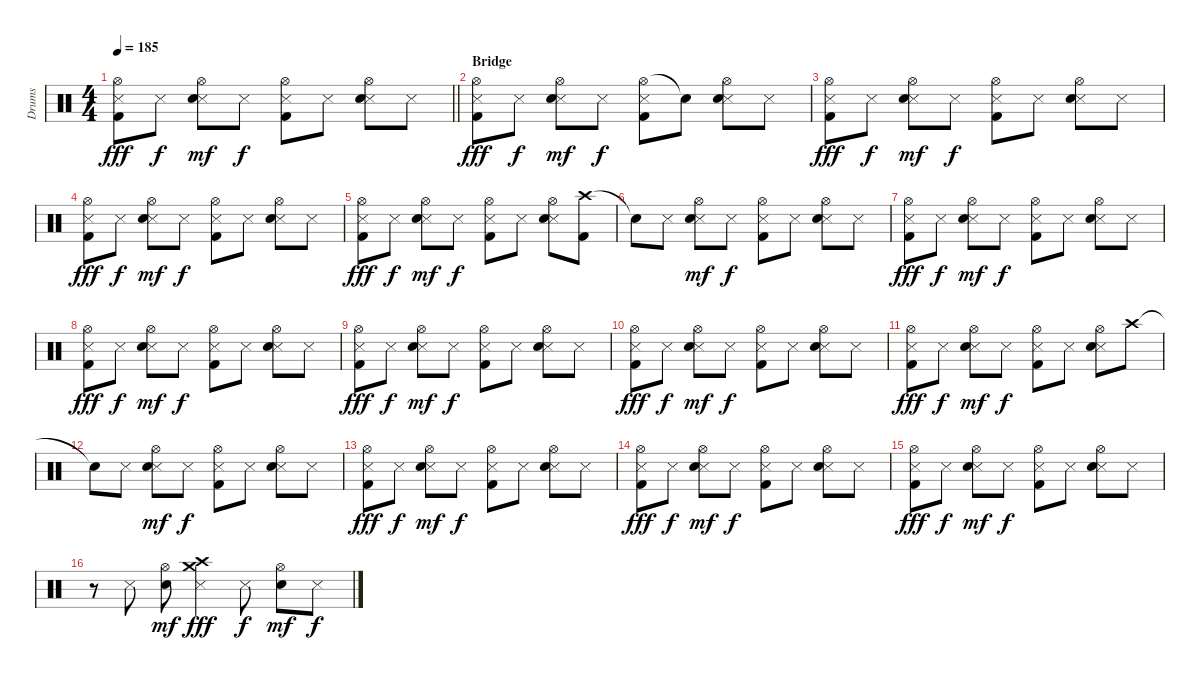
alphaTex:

\track ("Drums" "Drums") {instrument percussion}
\staff {score}
\articulation defaults
\ts (4 4)
\tempo 185
\clef neutral
\barLineRight lightlight
\ks c
("Hi-Hat (open)" "Metronome (hit)" "Kick (hit) 2").8{dy fff} "Metronome (hit)".8{dy f} ("Hi-Hat (open)" "Metronome (hit)" "Snare (hit) 2").8{dy mf} "Metronome (hit)".8{dy f} ("Hi-Hat (open)" "Metronome (hit)" "Kick (hit) 2").8 "Metronome (hit)".8 ("Hi-Hat (open)" "Metronome (hit)" "Snare (hit) 2").8 "Metronome (hit)".8 |
\section ("" "Bridge")
("Hi-Hat (open)" "Metronome (hit)" "Kick (hit) 2").8{dy fff} "Metronome (hit)".8{dy f} ("Hi-Hat (open)" "Metronome (hit)" "Snare (hit) 2").8{dy mf} "Metronome (hit)".8{dy f} ("Hi-Hat (open)" "Metronome (hit)" "Kick (hit) 2").8 "Snare (hit)"{t}.8 ("Hi-Hat (open)" "Metronome (hit)" "Snare (hit) 2").8 "Metronome (hit)".8 |
("Hi-Hat (open)" "Metronome (hit)" "Kick (hit) 2").8{dy fff} "Metronome (hit)".8{dy f} ("Hi-Hat (open)" "Metronome (hit)" "Snare (hit) 2").8{dy mf} "Metronome (hit)".8{dy f} ("Hi-Hat (open)" "Metronome (hit)" "Kick (hit) 2").8 "Metronome (hit)".8 ("Hi-Hat (open)" "Metronome (hit)" "Snare (hit) 2").8 "Metronome (hit)".8 |
("Hi-Hat (open)" "Metronome (hit)" "Kick (hit) 2").8{dy fff} "Metronome (hit)".8{dy f} ("Hi-Hat (open)" "Metronome (hit)" "Snare (hit) 2").8{dy mf} "Metronome (hit)".8{dy f} ("Hi-Hat (open)" "Metronome (hit)" "Kick (hit) 2").8 "Metronome (hit)".8 ("Hi-Hat (open)" "Metronome (hit)" "Snare (hit) 2").8 "Metronome (hit)".8 |
("Hi-Hat (open)" "Metronome (hit)" "Kick (hit) 2").8{dy fff} "Metronome (hit)".8{dy f} ("Hi-Hat (open)" "Metronome (hit)" "Snare (hit) 2").8{dy mf} "Metronome (hit)".8{dy f} ("Hi-Hat (open)" "Metronome (hit)" "Kick (hit) 2").8 "Metronome (hit)".8 ("Hi-Hat (open)" "Metronome (hit)" "Snare (hit) 2").8 ("Crash high (hit)" "Kick (hit) 2").8 |
"Snare (hit)"{t}.8 "Metronome (hit)".8 ("Hi-Hat (open)" "Metronome (hit)" "Snare (hit) 2").8{dy mf} "Metronome (hit)".8{dy f} ("Hi-Hat (open)" "Metronome (hit)" "Kick (hit) 2").8 "Metronome (hit)".8 ("Hi-Hat (open)" "Metronome (hit)" "Snare (hit) 2").8 "Metronome (hit)".8 |
("Hi-Hat (open)" "Metronome (hit)" "Kick (hit) 2").8{dy fff} "Metronome (hit)".8{dy f} ("Hi-Hat (open)" "Metronome (hit)" "Snare (hit) 2").8{dy mf} "Metronome (hit)".8{dy f} ("Hi-Hat (open)" "Metronome (hit)" "Kick (hit) 2").8 "Metronome (hit)".8 ("Hi-Hat (open)" "Metronome (hit)" "Snare (hit) 2").8 "Metronome (hit)".8 |
("Hi-Hat (open)" "Metronome (hit)" "Kick (hit) 2").8{dy fff} "Metronome (hit)".8{dy f} ("Hi-Hat (open)" "Metronome (hit)" "Snare (hit) 2").8{dy mf} "Metronome (hit)".8{dy f} ("Hi-Hat (open)" "Metronome (hit)" "Kick (hit) 2").8 "Metronome (hit)".8 ("Hi-Hat (open)" "Metronome (hit)" "Snare (hit) 2").8 "Metronome (hit)".8 |
("Hi-Hat (open)" "Metronome (hit)" "Kick (hit) 2").8{dy fff} "Metronome (hit)".8{dy f} ("Hi-Hat (open)" "Metronome (hit)" "Snare (hit) 2").8{dy mf} "Metronome (hit)".8{dy f} ("Hi-Hat (open)" "Metronome (hit)" "Kick (hit) 2").8 "Metronome (hit)".8 ("Hi-Hat (open)" "Metronome (hit)" "Snare (hit) 2").8 "Metronome (hit)".8 |
("Hi-Hat (open)" "Metronome (hit)" "Kick (hit) 2").8{dy fff} "Metronome (hit)".8{dy f} ("Hi-Hat (open)" "Metronome (hit)" "Snare (hit) 2").8{dy mf} "Metronome (hit)".8{dy f} ("Hi-Hat (open)" "Metronome (hit)" "Kick (hit) 2").8 "Metronome (hit)".8 ("Hi-Hat (open)" "Metronome (hit)" "Snare (hit) 2").8 "Metronome (hit)".8 |
("Hi-Hat (open)" "Metronome (hit)" "Kick (hit) 2").8{dy fff} "Metronome (hit)".8{dy f} ("Hi-Hat (open)" "Metronome (hit)" "Snare (hit) 2").8{dy mf} "Metronome (hit)".8{dy f} ("Hi-Hat (open)" "Metronome (hit)" "Kick (hit) 2").8 "Metronome (hit)".8 ("Hi-Hat (open)" "Metronome (hit)" "Snare (hit) 2").8 "Crash high (hit)".8 |
"Snare (hit)"{t}.8 "Metronome (hit)".8 ("Hi-Hat (open)" "Metronome (hit)" "Snare (hit) 2").8{dy mf} "Metronome (hit)".8{dy f} ("Hi-Hat (open)" "Metronome (hit)" "Kick (hit) 2").8 "Metronome (hit)".8 ("Hi-Hat (open)" "Metronome (hit)" "Snare (hit) 2").8 "Metronome (hit)".8 |
("Hi-Hat (open)" "Metronome (hit)" "Kick (hit) 2").8{dy fff} "Metronome (hit)".8{dy f} ("Hi-Hat (open)" "Metronome (hit)" "Snare (hit) 2").8{dy mf} "Metronome (hit)".8{dy f} ("Hi-Hat (open)" "Metronome (hit)" "Kick (hit) 2").8 "Metronome (hit)".8 ("Hi-Hat (open)" "Metronome (hit)" "Snare (hit) 2").8 "Metronome (hit)".8 |
("Hi-Hat (open)" "Metronome (hit)" "Kick (hit) 2").8{dy fff} "Metronome (hit)".8{dy f} ("Hi-Hat (open)" "Metronome (hit)" "Snare (hit) 2").8{dy mf} "Metronome (hit)".8{dy f} ("Hi-Hat (open)" "Metronome (hit)" "Kick (hit) 2").8 "Metronome (hit)".8 ("Hi-Hat (open)" "Metronome (hit)" "Snare (hit) 2").8 "Metronome (hit)".8 |
("Hi-Hat (open)" "Metronome (hit)" "Kick (hit) 2").8{dy fff} "Metronome (hit)".8{dy f} ("Hi-Hat (open)" "Metronome (hit)" "Snare (hit) 2").8{dy mf} "Metronome (hit)".8{dy f} ("Hi-Hat (open)" "Metronome (hit)" "Kick (hit) 2").8 "Metronome (hit)".8 ("Hi-Hat (open)" "Metronome (hit)" "Snare (hit) 2").8 "Metronome (hit)".8 |
r.8 "Metronome (hit)".8 ("Snare (hit) 2" "Hi-Hat (open)").8{dy mf} ("Crash medium (hit)" "Metronome (hit)" "Crash high (hit)").4{dy fff} "Metronome (hit)".8{dy f} ("Snare (hit) 2" "Hi-Hat (open)").8{dy mf} "Metronome (hit)".8{dy f}
